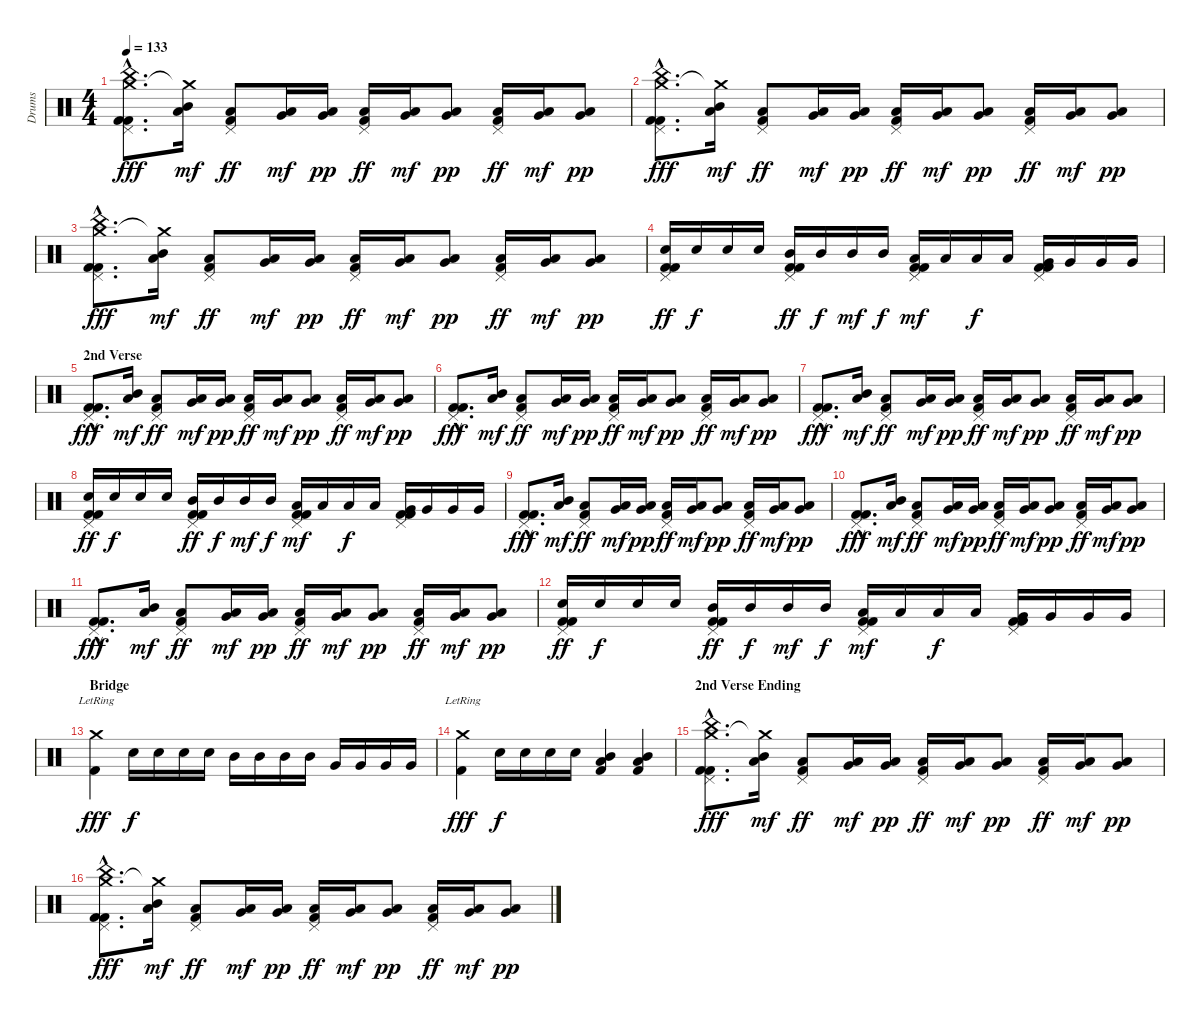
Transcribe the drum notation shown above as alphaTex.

\track ("Drums" "Drums") {instrument percussion}
\staff {score}
\articulation defaults
\ts (4 4)
\tempo 133
\clef neutral
\ks c
("Crash medium (hit)"{hac} "China (hit)"{hac} "Pedal Hi-Hat (hit)"{hac} "Kick (hit) 2"{hac} "Kick (hit) 2"{hac}).8{d dy fff} ("Crash medium (hit)"{t} "Mid Tom (hit)" "Low Tom (hit)").16{dy mf} ("Pedal Hi-Hat (hit)" "Low Tom (hit)" "Kick (hit) 2").8{dy ff} ("Low Tom (hit)" "Very Low Tom (hit)").16{dy mf} ("Low Tom (hit)" "Very Low Tom (hit)").16{dy pp} ("Pedal Hi-Hat (hit)" "Low Tom (hit)" "Kick (hit) 2").16{dy ff} ("Low Tom (hit)" "Very Low Tom (hit)").16{dy mf} ("Low Tom (hit)" "Very Low Tom (hit)").8{dy pp} ("Pedal Hi-Hat (hit)" "Low Tom (hit)" "Kick (hit) 2").16{dy ff} ("Low Tom (hit)" "Very Low Tom (hit)").16{dy mf} ("Low Tom (hit)" "Very Low Tom (hit)").8{dy pp} |
("Crash medium (hit)"{hac} "China (hit)"{hac} "Pedal Hi-Hat (hit)"{hac} "Kick (hit) 2"{hac} "Kick (hit) 2"{hac}).8{d dy fff} ("Crash medium (hit)"{t} "Mid Tom (hit)" "Low Tom (hit)").16{dy mf} ("Pedal Hi-Hat (hit)" "Low Tom (hit)" "Kick (hit) 2").8{dy ff} ("Low Tom (hit)" "Very Low Tom (hit)").16{dy mf} ("Low Tom (hit)" "Very Low Tom (hit)").16{dy pp} ("Pedal Hi-Hat (hit)" "Low Tom (hit)" "Kick (hit) 2").16{dy ff} ("Low Tom (hit)" "Very Low Tom (hit)").16{dy mf} ("Low Tom (hit)" "Very Low Tom (hit)").8{dy pp} ("Pedal Hi-Hat (hit)" "Low Tom (hit)" "Kick (hit) 2").16{dy ff} ("Low Tom (hit)" "Very Low Tom (hit)").16{dy mf} ("Low Tom (hit)" "Very Low Tom (hit)").8{dy pp} |
("Crash medium (hit)"{hac} "China (hit)"{hac} "Pedal Hi-Hat (hit)"{hac} "Kick (hit) 2"{hac} "Kick (hit) 2"{hac}).8{d dy fff} ("Crash medium (hit)"{t} "Mid Tom (hit)" "Low Tom (hit)").16{dy mf} ("Pedal Hi-Hat (hit)" "Low Tom (hit)" "Kick (hit) 2").8{dy ff} ("Low Tom (hit)" "Very Low Tom (hit)").16{dy mf} ("Low Tom (hit)" "Very Low Tom (hit)").16{dy pp} ("Pedal Hi-Hat (hit)" "Low Tom (hit)" "Kick (hit) 2").16{dy ff} ("Low Tom (hit)" "Very Low Tom (hit)").16{dy mf} ("Low Tom (hit)" "Very Low Tom (hit)").8{dy pp} ("Pedal Hi-Hat (hit)" "Low Tom (hit)" "Kick (hit) 2").16{dy ff} ("Low Tom (hit)" "Very Low Tom (hit)").16{dy mf} ("Low Tom (hit)" "Very Low Tom (hit)").8{dy pp} |
("Pedal Hi-Hat (hit)" "Electric Snare (hit)" "Kick (hit) 2" "Kick (hit) 2").16{dy ff} "Electric Snare (hit)".16{dy f} "Electric Snare (hit)".16 "Electric Snare (hit)".16 ("Pedal Hi-Hat (hit)" "Mid Tom (hit)" "Kick (hit) 2" "Kick (hit) 2").16{dy ff} "Mid Tom (hit)".16{dy f} "Mid Tom (hit)".16{dy mf} "Mid Tom (hit)".16{dy f} ("Pedal Hi-Hat (hit)" "Low Tom (hit)" "Kick (hit) 2" "Kick (hit) 2").16{dy mf} "Low Tom (hit)".16 "Low Tom (hit)".16{dy f} "Low Tom (hit)".16 ("Pedal Hi-Hat (hit)" "Very Low Tom (hit)" "Kick (hit) 2" "Kick (hit) 2").16 "Very Low Tom (hit)".16 "Very Low Tom (hit)".16 "Very Low Tom (hit)".16 |
\section ("" "2nd Verse")
("Pedal Hi-Hat (hit)"{hac} "Kick (hit) 2"{hac} "Kick (hit) 2"{hac}).8{d dy fff} ("Mid Tom (hit)" "Low Tom (hit)").16{dy mf} ("Pedal Hi-Hat (hit)" "Low Tom (hit)" "Kick (hit) 2").8{dy ff} ("Low Tom (hit)" "Very Low Tom (hit)").16{dy mf} ("Low Tom (hit)" "Very Low Tom (hit)").16{dy pp} ("Pedal Hi-Hat (hit)" "Low Tom (hit)" "Kick (hit) 2").16{dy ff} ("Low Tom (hit)" "Very Low Tom (hit)").16{dy mf} ("Low Tom (hit)" "Very Low Tom (hit)").8{dy pp} ("Pedal Hi-Hat (hit)" "Low Tom (hit)" "Kick (hit) 2").16{dy ff} ("Low Tom (hit)" "Very Low Tom (hit)").16{dy mf} ("Low Tom (hit)" "Very Low Tom (hit)").8{dy pp} |
("Pedal Hi-Hat (hit)"{hac} "Kick (hit) 2"{hac} "Kick (hit) 2"{hac}).8{d dy fff} ("Mid Tom (hit)" "Low Tom (hit)").16{dy mf} ("Pedal Hi-Hat (hit)" "Low Tom (hit)" "Kick (hit) 2").8{dy ff} ("Low Tom (hit)" "Very Low Tom (hit)").16{dy mf} ("Low Tom (hit)" "Very Low Tom (hit)").16{dy pp} ("Pedal Hi-Hat (hit)" "Low Tom (hit)" "Kick (hit) 2").16{dy ff} ("Low Tom (hit)" "Very Low Tom (hit)").16{dy mf} ("Low Tom (hit)" "Very Low Tom (hit)").8{dy pp} ("Pedal Hi-Hat (hit)" "Low Tom (hit)" "Kick (hit) 2").16{dy ff} ("Low Tom (hit)" "Very Low Tom (hit)").16{dy mf} ("Low Tom (hit)" "Very Low Tom (hit)").8{dy pp} |
("Pedal Hi-Hat (hit)"{hac} "Kick (hit) 2"{hac} "Kick (hit) 2"{hac}).8{d dy fff} ("Mid Tom (hit)" "Low Tom (hit)").16{dy mf} ("Pedal Hi-Hat (hit)" "Low Tom (hit)" "Kick (hit) 2").8{dy ff} ("Low Tom (hit)" "Very Low Tom (hit)").16{dy mf} ("Low Tom (hit)" "Very Low Tom (hit)").16{dy pp} ("Pedal Hi-Hat (hit)" "Low Tom (hit)" "Kick (hit) 2").16{dy ff} ("Low Tom (hit)" "Very Low Tom (hit)").16{dy mf} ("Low Tom (hit)" "Very Low Tom (hit)").8{dy pp} ("Pedal Hi-Hat (hit)" "Low Tom (hit)" "Kick (hit) 2").16{dy ff} ("Low Tom (hit)" "Very Low Tom (hit)").16{dy mf} ("Low Tom (hit)" "Very Low Tom (hit)").8{dy pp} |
("Pedal Hi-Hat (hit)" "Electric Snare (hit)" "Kick (hit) 2" "Kick (hit) 2").16{dy ff} "Electric Snare (hit)".16{dy f} "Electric Snare (hit)".16 "Electric Snare (hit)".16 ("Pedal Hi-Hat (hit)" "Mid Tom (hit)" "Kick (hit) 2" "Kick (hit) 2").16{dy ff} "Mid Tom (hit)".16{dy f} "Mid Tom (hit)".16{dy mf} "Mid Tom (hit)".16{dy f} ("Pedal Hi-Hat (hit)" "Low Tom (hit)" "Kick (hit) 2" "Kick (hit) 2").16{dy mf} "Low Tom (hit)".16 "Low Tom (hit)".16{dy f} "Low Tom (hit)".16 ("Pedal Hi-Hat (hit)" "Very Low Tom (hit)" "Kick (hit) 2" "Kick (hit) 2").16 "Very Low Tom (hit)".16 "Very Low Tom (hit)".16 "Very Low Tom (hit)".16 |
("Pedal Hi-Hat (hit)"{hac} "Kick (hit) 2"{hac} "Kick (hit) 2"{hac}).8{d dy fff} ("Mid Tom (hit)" "Low Tom (hit)").16{dy mf} ("Pedal Hi-Hat (hit)" "Low Tom (hit)" "Kick (hit) 2").8{dy ff} ("Low Tom (hit)" "Very Low Tom (hit)").16{dy mf} ("Low Tom (hit)" "Very Low Tom (hit)").16{dy pp} ("Pedal Hi-Hat (hit)" "Low Tom (hit)" "Kick (hit) 2").16{dy ff} ("Low Tom (hit)" "Very Low Tom (hit)").16{dy mf} ("Low Tom (hit)" "Very Low Tom (hit)").8{dy pp} ("Pedal Hi-Hat (hit)" "Low Tom (hit)" "Kick (hit) 2").16{dy ff} ("Low Tom (hit)" "Very Low Tom (hit)").16{dy mf} ("Low Tom (hit)" "Very Low Tom (hit)").8{dy pp} |
("Pedal Hi-Hat (hit)"{hac} "Kick (hit) 2"{hac} "Kick (hit) 2"{hac}).8{d dy fff} ("Mid Tom (hit)" "Low Tom (hit)").16{dy mf} ("Pedal Hi-Hat (hit)" "Low Tom (hit)" "Kick (hit) 2").8{dy ff} ("Low Tom (hit)" "Very Low Tom (hit)").16{dy mf} ("Low Tom (hit)" "Very Low Tom (hit)").16{dy pp} ("Pedal Hi-Hat (hit)" "Low Tom (hit)" "Kick (hit) 2").16{dy ff} ("Low Tom (hit)" "Very Low Tom (hit)").16{dy mf} ("Low Tom (hit)" "Very Low Tom (hit)").8{dy pp} ("Pedal Hi-Hat (hit)" "Low Tom (hit)" "Kick (hit) 2").16{dy ff} ("Low Tom (hit)" "Very Low Tom (hit)").16{dy mf} ("Low Tom (hit)" "Very Low Tom (hit)").8{dy pp} |
("Pedal Hi-Hat (hit)"{hac} "Kick (hit) 2"{hac} "Kick (hit) 2"{hac}).8{d dy fff} ("Mid Tom (hit)" "Low Tom (hit)").16{dy mf} ("Pedal Hi-Hat (hit)" "Low Tom (hit)" "Kick (hit) 2").8{dy ff} ("Low Tom (hit)" "Very Low Tom (hit)").16{dy mf} ("Low Tom (hit)" "Very Low Tom (hit)").16{dy pp} ("Pedal Hi-Hat (hit)" "Low Tom (hit)" "Kick (hit) 2").16{dy ff} ("Low Tom (hit)" "Very Low Tom (hit)").16{dy mf} ("Low Tom (hit)" "Very Low Tom (hit)").8{dy pp} ("Pedal Hi-Hat (hit)" "Low Tom (hit)" "Kick (hit) 2").16{dy ff} ("Low Tom (hit)" "Very Low Tom (hit)").16{dy mf} ("Low Tom (hit)" "Very Low Tom (hit)").8{dy pp} |
("Pedal Hi-Hat (hit)" "Electric Snare (hit)" "Kick (hit) 2" "Kick (hit) 2").16{dy ff} "Electric Snare (hit)".16{dy f} "Electric Snare (hit)".16 "Electric Snare (hit)".16 ("Pedal Hi-Hat (hit)" "Mid Tom (hit)" "Kick (hit) 2" "Kick (hit) 2").16{dy ff} "Mid Tom (hit)".16{dy f} "Mid Tom (hit)".16{dy mf} "Mid Tom (hit)".16{dy f} ("Pedal Hi-Hat (hit)" "Low Tom (hit)" "Kick (hit) 2" "Kick (hit) 2").16{dy mf} "Low Tom (hit)".16 "Low Tom (hit)".16{dy f} "Low Tom (hit)".16 ("Pedal Hi-Hat (hit)" "Very Low Tom (hit)" "Kick (hit) 2" "Kick (hit) 2").16 "Very Low Tom (hit)".16 "Very Low Tom (hit)".16 "Very Low Tom (hit)".16 |
\section ("" "Bridge")
("Crash medium (hit)"{lr} "Kick (hit) 2").4{dy fff} "Snare (hit) 2".16{dy f} "Snare (hit) 2".16 "Snare (hit) 2".16 "Snare (hit) 2".16 "Mid Tom (hit)".16 "Mid Tom (hit)".16 "Mid Tom (hit)".16 "Mid Tom (hit)".16 "Very Low Tom (hit)".16 "Very Low Tom (hit)".16 "Very Low Tom (hit)".16 "Very Low Tom (hit)".16 |
("Crash medium (hit)"{lr} "Kick (hit) 2").4{dy fff} "Snare (hit) 2".16{dy f} "Snare (hit) 2".16 "Snare (hit) 2".16 "Snare (hit) 2".16 ("Mid Tom (hit)" "Low Tom (hit)" "Kick (hit) 2").4 ("Mid Tom (hit)" "Low Tom (hit)" "Kick (hit) 2").4 |
\section ("" "2nd Verse Ending")
("Crash medium (hit)"{hac} "China (hit)"{hac} "Pedal Hi-Hat (hit)"{hac} "Kick (hit) 2"{hac} "Kick (hit) 2"{hac}).8{d dy fff} ("Crash medium (hit)"{t} "Mid Tom (hit)" "Low Tom (hit)").16{dy mf} ("Pedal Hi-Hat (hit)" "Low Tom (hit)" "Kick (hit) 2").8{dy ff} ("Low Tom (hit)" "Very Low Tom (hit)").16{dy mf} ("Low Tom (hit)" "Very Low Tom (hit)").16{dy pp} ("Pedal Hi-Hat (hit)" "Low Tom (hit)" "Kick (hit) 2").16{dy ff} ("Low Tom (hit)" "Very Low Tom (hit)").16{dy mf} ("Low Tom (hit)" "Very Low Tom (hit)").8{dy pp} ("Pedal Hi-Hat (hit)" "Low Tom (hit)" "Kick (hit) 2").16{dy ff} ("Low Tom (hit)" "Very Low Tom (hit)").16{dy mf} ("Low Tom (hit)" "Very Low Tom (hit)").8{dy pp} |
("Crash medium (hit)"{hac} "China (hit)"{hac} "Pedal Hi-Hat (hit)"{hac} "Kick (hit) 2"{hac} "Kick (hit) 2"{hac}).8{d dy fff} ("Crash medium (hit)"{t} "Mid Tom (hit)" "Low Tom (hit)").16{dy mf} ("Pedal Hi-Hat (hit)" "Low Tom (hit)" "Kick (hit) 2").8{dy ff} ("Low Tom (hit)" "Very Low Tom (hit)").16{dy mf} ("Low Tom (hit)" "Very Low Tom (hit)").16{dy pp} ("Pedal Hi-Hat (hit)" "Low Tom (hit)" "Kick (hit) 2").16{dy ff} ("Low Tom (hit)" "Very Low Tom (hit)").16{dy mf} ("Low Tom (hit)" "Very Low Tom (hit)").8{dy pp} ("Pedal Hi-Hat (hit)" "Low Tom (hit)" "Kick (hit) 2").16{dy ff} ("Low Tom (hit)" "Very Low Tom (hit)").16{dy mf} ("Low Tom (hit)" "Very Low Tom (hit)").8{dy pp}
